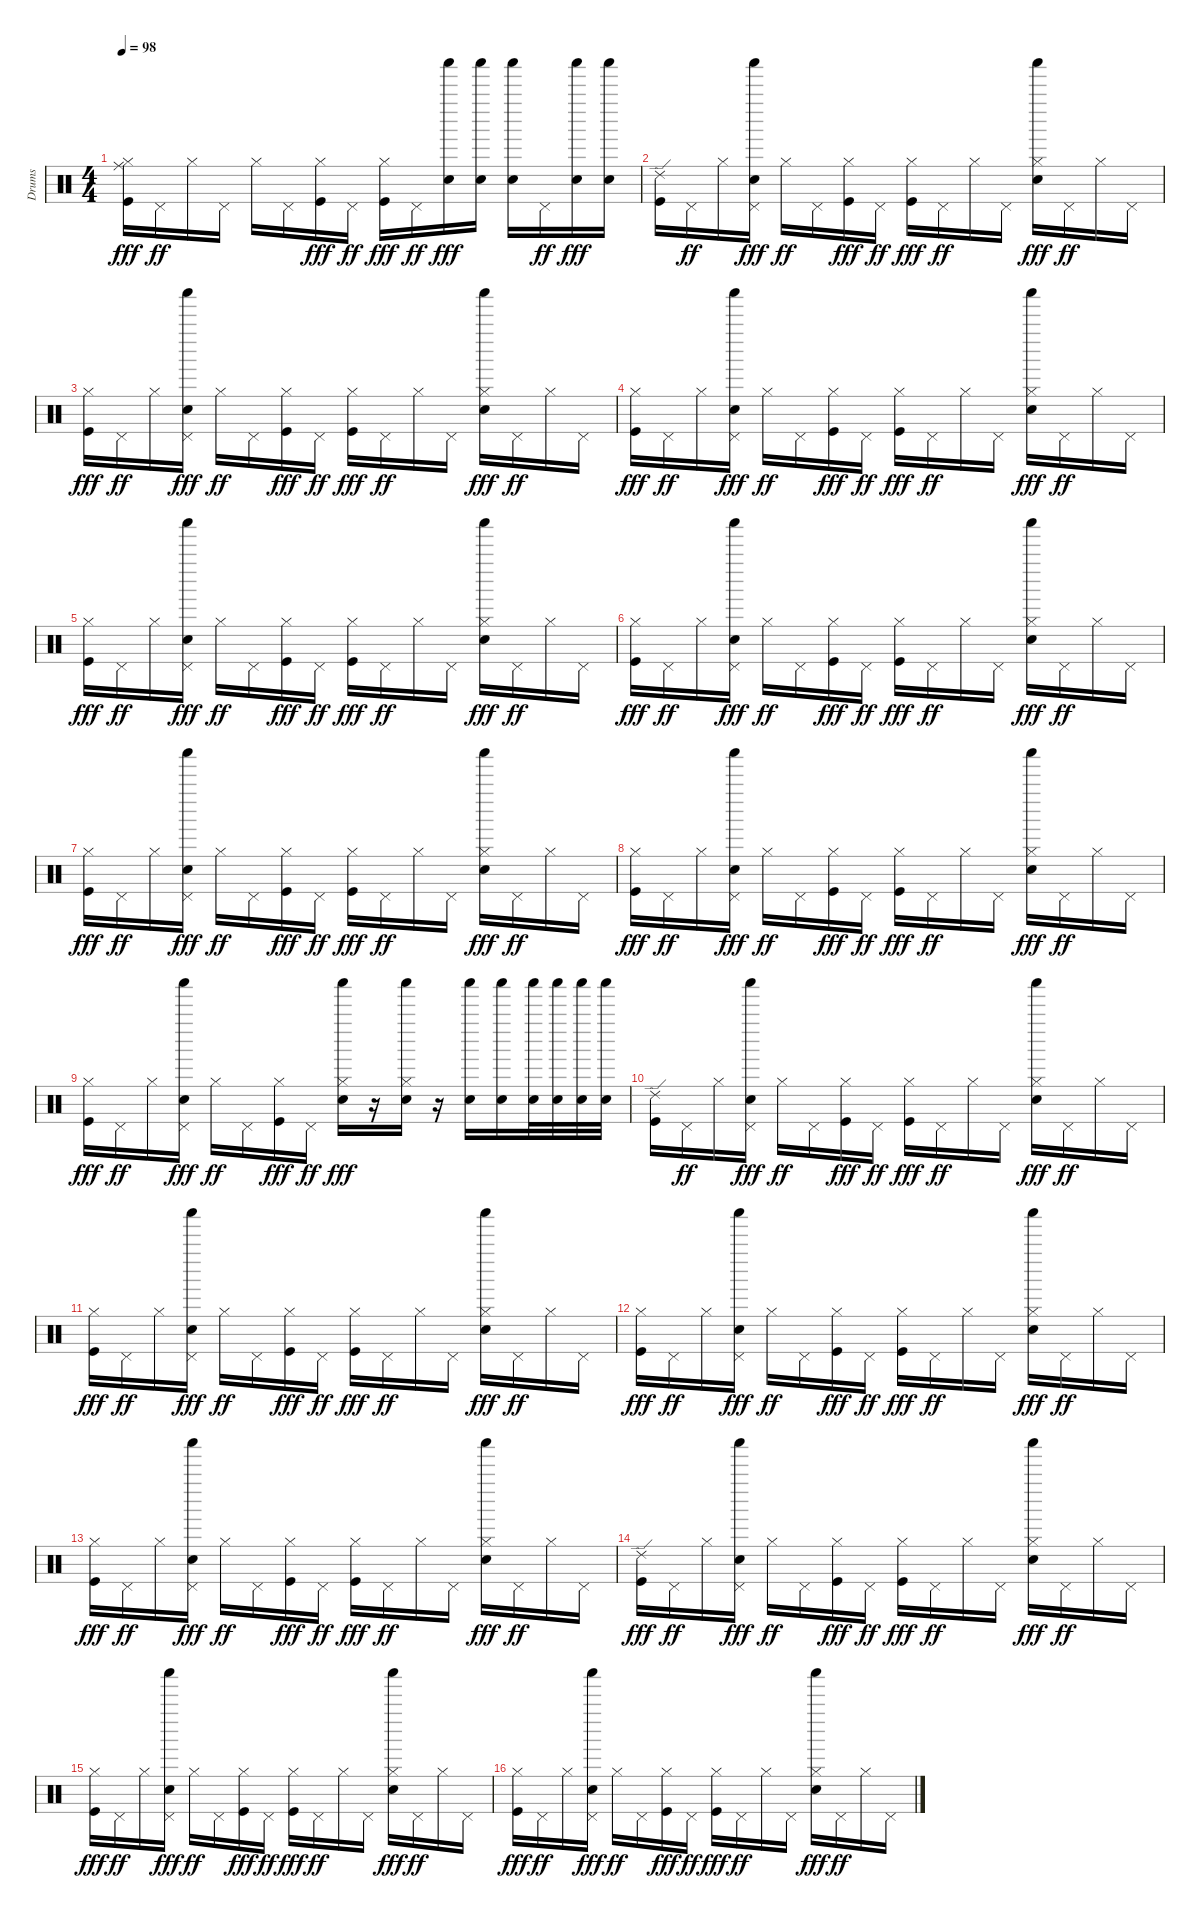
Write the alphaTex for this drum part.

\track ("Drums" "Drums") {instrument percussion}
\staff {score}
\articulation defaults
\ts (4 4)
\tempo 98
\clef neutral
\ks c
("Hi-Hat (closed)" "Kick (hit)" "Ride (middle)").16{dy fff} "Pedal Hi-Hat (hit)".16{dy ff} "Hi-Hat (closed)".16 "Pedal Hi-Hat (hit)".16 "Hi-Hat (closed)".16 "Pedal Hi-Hat (hit)".16 ("Hi-Hat (closed)" "Kick (hit)").16{dy fff} "Pedal Hi-Hat (hit)".16{dy ff} ("Hi-Hat (closed)" "Kick (hit)").16{dy fff} "Pedal Hi-Hat (hit)".16{dy ff} ("Shaker (hit)" "Electric Snare (hit)").16{dy fff} ("Shaker (hit)" "Electric Snare (hit)").16 ("Shaker (hit)" "Electric Snare (hit)").16 "Pedal Hi-Hat (hit)".16{dy ff} ("Shaker (hit)" "Electric Snare (hit)").16{dy fff} ("Shaker (hit)" "Electric Snare (hit)").16 |
("Kick (hit)" "Ride (edge) 2").16 "Pedal Hi-Hat (hit)".16{dy ff} "Hi-Hat (closed)".16 ("Pedal Hi-Hat (hit)" "Shaker (hit)" "Electric Snare (hit)").16{dy fff} "Hi-Hat (closed)".16{dy ff} "Pedal Hi-Hat (hit)".16 ("Hi-Hat (closed)" "Kick (hit)").16{dy fff} "Pedal Hi-Hat (hit)".16{dy ff} ("Hi-Hat (closed)" "Kick (hit)").16{dy fff} "Pedal Hi-Hat (hit)".16{dy ff} "Hi-Hat (closed)".16 "Pedal Hi-Hat (hit)".16 ("Hi-Hat (closed)" "Shaker (hit)" "Electric Snare (hit)").16{dy fff} "Pedal Hi-Hat (hit)".16{dy ff} "Hi-Hat (closed)".16 "Pedal Hi-Hat (hit)".16 |
("Hi-Hat (closed)" "Kick (hit)").16{dy fff} "Pedal Hi-Hat (hit)".16{dy ff} "Hi-Hat (closed)".16 ("Pedal Hi-Hat (hit)" "Shaker (hit)" "Electric Snare (hit)").16{dy fff} "Hi-Hat (closed)".16{dy ff} "Pedal Hi-Hat (hit)".16 ("Hi-Hat (closed)" "Kick (hit)").16{dy fff} "Pedal Hi-Hat (hit)".16{dy ff} ("Hi-Hat (closed)" "Kick (hit)").16{dy fff} "Pedal Hi-Hat (hit)".16{dy ff} "Hi-Hat (closed)".16 "Pedal Hi-Hat (hit)".16 ("Hi-Hat (closed)" "Shaker (hit)" "Electric Snare (hit)").16{dy fff} "Pedal Hi-Hat (hit)".16{dy ff} "Hi-Hat (closed)".16 "Pedal Hi-Hat (hit)".16 |
("Hi-Hat (closed)" "Kick (hit)").16{dy fff} "Pedal Hi-Hat (hit)".16{dy ff} "Hi-Hat (closed)".16 ("Pedal Hi-Hat (hit)" "Shaker (hit)" "Electric Snare (hit)").16{dy fff} "Hi-Hat (closed)".16{dy ff} "Pedal Hi-Hat (hit)".16 ("Hi-Hat (closed)" "Kick (hit)").16{dy fff} "Pedal Hi-Hat (hit)".16{dy ff} ("Hi-Hat (closed)" "Kick (hit)").16{dy fff} "Pedal Hi-Hat (hit)".16{dy ff} "Hi-Hat (closed)".16 "Pedal Hi-Hat (hit)".16 ("Hi-Hat (closed)" "Shaker (hit)" "Electric Snare (hit)").16{dy fff} "Pedal Hi-Hat (hit)".16{dy ff} "Hi-Hat (closed)".16 "Pedal Hi-Hat (hit)".16 |
("Hi-Hat (closed)" "Kick (hit)").16{dy fff} "Pedal Hi-Hat (hit)".16{dy ff} "Hi-Hat (closed)".16 ("Pedal Hi-Hat (hit)" "Shaker (hit)" "Electric Snare (hit)").16{dy fff} "Hi-Hat (closed)".16{dy ff} "Pedal Hi-Hat (hit)".16 ("Hi-Hat (closed)" "Kick (hit)").16{dy fff} "Pedal Hi-Hat (hit)".16{dy ff} ("Hi-Hat (closed)" "Kick (hit)").16{dy fff} "Pedal Hi-Hat (hit)".16{dy ff} "Hi-Hat (closed)".16 "Pedal Hi-Hat (hit)".16 ("Hi-Hat (closed)" "Shaker (hit)" "Electric Snare (hit)").16{dy fff} "Pedal Hi-Hat (hit)".16{dy ff} "Hi-Hat (closed)".16 "Pedal Hi-Hat (hit)".16 |
("Hi-Hat (closed)" "Kick (hit)").16{dy fff} "Pedal Hi-Hat (hit)".16{dy ff} "Hi-Hat (closed)".16 ("Pedal Hi-Hat (hit)" "Shaker (hit)" "Electric Snare (hit)").16{dy fff} "Hi-Hat (closed)".16{dy ff} "Pedal Hi-Hat (hit)".16 ("Hi-Hat (closed)" "Kick (hit)").16{dy fff} "Pedal Hi-Hat (hit)".16{dy ff} ("Hi-Hat (closed)" "Kick (hit)").16{dy fff} "Pedal Hi-Hat (hit)".16{dy ff} "Hi-Hat (closed)".16 "Pedal Hi-Hat (hit)".16 ("Hi-Hat (closed)" "Shaker (hit)" "Electric Snare (hit)").16{dy fff} "Pedal Hi-Hat (hit)".16{dy ff} "Hi-Hat (closed)".16 "Pedal Hi-Hat (hit)".16 |
("Hi-Hat (closed)" "Kick (hit)").16{dy fff} "Pedal Hi-Hat (hit)".16{dy ff} "Hi-Hat (closed)".16 ("Pedal Hi-Hat (hit)" "Shaker (hit)" "Electric Snare (hit)").16{dy fff} "Hi-Hat (closed)".16{dy ff} "Pedal Hi-Hat (hit)".16 ("Hi-Hat (closed)" "Kick (hit)").16{dy fff} "Pedal Hi-Hat (hit)".16{dy ff} ("Hi-Hat (closed)" "Kick (hit)").16{dy fff} "Pedal Hi-Hat (hit)".16{dy ff} "Hi-Hat (closed)".16 "Pedal Hi-Hat (hit)".16 ("Hi-Hat (closed)" "Shaker (hit)" "Electric Snare (hit)").16{dy fff} "Pedal Hi-Hat (hit)".16{dy ff} "Hi-Hat (closed)".16 "Pedal Hi-Hat (hit)".16 |
("Hi-Hat (closed)" "Kick (hit)").16{dy fff} "Pedal Hi-Hat (hit)".16{dy ff} "Hi-Hat (closed)".16 ("Pedal Hi-Hat (hit)" "Shaker (hit)" "Electric Snare (hit)").16{dy fff} "Hi-Hat (closed)".16{dy ff} "Pedal Hi-Hat (hit)".16 ("Hi-Hat (closed)" "Kick (hit)").16{dy fff} "Pedal Hi-Hat (hit)".16{dy ff} ("Hi-Hat (closed)" "Kick (hit)").16{dy fff} "Pedal Hi-Hat (hit)".16{dy ff} "Hi-Hat (closed)".16 "Pedal Hi-Hat (hit)".16 ("Hi-Hat (closed)" "Shaker (hit)" "Electric Snare (hit)").16{dy fff} "Pedal Hi-Hat (hit)".16{dy ff} "Hi-Hat (closed)".16 "Pedal Hi-Hat (hit)".16 |
("Hi-Hat (closed)" "Kick (hit)").16{dy fff} "Pedal Hi-Hat (hit)".16{dy ff} "Hi-Hat (closed)".16 ("Pedal Hi-Hat (hit)" "Shaker (hit)" "Electric Snare (hit)").16{dy fff} "Hi-Hat (closed)".16{dy ff} "Pedal Hi-Hat (hit)".16 ("Hi-Hat (closed)" "Kick (hit)").16{dy fff} "Pedal Hi-Hat (hit)".16{dy ff} ("Hi-Hat (closed)" "Shaker (hit)" "Electric Snare (hit)").16{dy fff} r.16 ("Hi-Hat (closed)" "Shaker (hit)" "Electric Snare (hit)").16 r.16 ("Shaker (hit)" "Electric Snare (hit)").16 ("Shaker (hit)" "Electric Snare (hit)").16 ("Shaker (hit)" "Electric Snare (hit)").32 ("Shaker (hit)" "Electric Snare (hit)").32 ("Shaker (hit)" "Electric Snare (hit)").32 ("Shaker (hit)" "Electric Snare (hit)").32 |
("Kick (hit)" "Ride (edge) 2").16 "Pedal Hi-Hat (hit)".16{dy ff} "Hi-Hat (closed)".16 ("Pedal Hi-Hat (hit)" "Shaker (hit)" "Electric Snare (hit)").16{dy fff} "Hi-Hat (closed)".16{dy ff} "Pedal Hi-Hat (hit)".16 ("Hi-Hat (closed)" "Kick (hit)").16{dy fff} "Pedal Hi-Hat (hit)".16{dy ff} ("Hi-Hat (closed)" "Kick (hit)").16{dy fff} "Pedal Hi-Hat (hit)".16{dy ff} "Hi-Hat (closed)".16 "Pedal Hi-Hat (hit)".16 ("Hi-Hat (closed)" "Shaker (hit)" "Electric Snare (hit)").16{dy fff} "Pedal Hi-Hat (hit)".16{dy ff} "Hi-Hat (closed)".16 "Pedal Hi-Hat (hit)".16 |
("Hi-Hat (closed)" "Kick (hit)").16{dy fff} "Pedal Hi-Hat (hit)".16{dy ff} "Hi-Hat (closed)".16 ("Pedal Hi-Hat (hit)" "Shaker (hit)" "Electric Snare (hit)").16{dy fff} "Hi-Hat (closed)".16{dy ff} "Pedal Hi-Hat (hit)".16 ("Hi-Hat (closed)" "Kick (hit)").16{dy fff} "Pedal Hi-Hat (hit)".16{dy ff} ("Hi-Hat (closed)" "Kick (hit)").16{dy fff} "Pedal Hi-Hat (hit)".16{dy ff} "Hi-Hat (closed)".16 "Pedal Hi-Hat (hit)".16 ("Hi-Hat (closed)" "Shaker (hit)" "Electric Snare (hit)").16{dy fff} "Pedal Hi-Hat (hit)".16{dy ff} "Hi-Hat (closed)".16 "Pedal Hi-Hat (hit)".16 |
("Hi-Hat (closed)" "Kick (hit)").16{dy fff} "Pedal Hi-Hat (hit)".16{dy ff} "Hi-Hat (closed)".16 ("Pedal Hi-Hat (hit)" "Shaker (hit)" "Electric Snare (hit)").16{dy fff} "Hi-Hat (closed)".16{dy ff} "Pedal Hi-Hat (hit)".16 ("Hi-Hat (closed)" "Kick (hit)").16{dy fff} "Pedal Hi-Hat (hit)".16{dy ff} ("Hi-Hat (closed)" "Kick (hit)").16{dy fff} "Pedal Hi-Hat (hit)".16{dy ff} "Hi-Hat (closed)".16 "Pedal Hi-Hat (hit)".16 ("Hi-Hat (closed)" "Shaker (hit)" "Electric Snare (hit)").16{dy fff} "Pedal Hi-Hat (hit)".16{dy ff} "Hi-Hat (closed)".16 "Pedal Hi-Hat (hit)".16 |
("Hi-Hat (closed)" "Kick (hit)").16{dy fff} "Pedal Hi-Hat (hit)".16{dy ff} "Hi-Hat (closed)".16 ("Pedal Hi-Hat (hit)" "Shaker (hit)" "Electric Snare (hit)").16{dy fff} "Hi-Hat (closed)".16{dy ff} "Pedal Hi-Hat (hit)".16 ("Hi-Hat (closed)" "Kick (hit)").16{dy fff} "Pedal Hi-Hat (hit)".16{dy ff} ("Hi-Hat (closed)" "Kick (hit)").16{dy fff} "Pedal Hi-Hat (hit)".16{dy ff} "Hi-Hat (closed)".16 "Pedal Hi-Hat (hit)".16 ("Hi-Hat (closed)" "Shaker (hit)" "Electric Snare (hit)").16{dy fff} "Pedal Hi-Hat (hit)".16{dy ff} "Hi-Hat (closed)".16 "Pedal Hi-Hat (hit)".16 |
("Kick (hit)" "Ride (edge) 2").16{dy fff} "Pedal Hi-Hat (hit)".16{dy ff} "Hi-Hat (closed)".16 ("Pedal Hi-Hat (hit)" "Shaker (hit)" "Electric Snare (hit)").16{dy fff} "Hi-Hat (closed)".16{dy ff} "Pedal Hi-Hat (hit)".16 ("Hi-Hat (closed)" "Kick (hit)").16{dy fff} "Pedal Hi-Hat (hit)".16{dy ff} ("Hi-Hat (closed)" "Kick (hit)").16{dy fff} "Pedal Hi-Hat (hit)".16{dy ff} "Hi-Hat (closed)".16 "Pedal Hi-Hat (hit)".16 ("Hi-Hat (closed)" "Shaker (hit)" "Electric Snare (hit)").16{dy fff} "Pedal Hi-Hat (hit)".16{dy ff} "Hi-Hat (closed)".16 "Pedal Hi-Hat (hit)".16 |
("Hi-Hat (closed)" "Kick (hit)").16{dy fff} "Pedal Hi-Hat (hit)".16{dy ff} "Hi-Hat (closed)".16 ("Pedal Hi-Hat (hit)" "Shaker (hit)" "Electric Snare (hit)").16{dy fff} "Hi-Hat (closed)".16{dy ff} "Pedal Hi-Hat (hit)".16 ("Hi-Hat (closed)" "Kick (hit)").16{dy fff} "Pedal Hi-Hat (hit)".16{dy ff} ("Hi-Hat (closed)" "Kick (hit)").16{dy fff} "Pedal Hi-Hat (hit)".16{dy ff} "Hi-Hat (closed)".16 "Pedal Hi-Hat (hit)".16 ("Hi-Hat (closed)" "Shaker (hit)" "Electric Snare (hit)").16{dy fff} "Pedal Hi-Hat (hit)".16{dy ff} "Hi-Hat (closed)".16 "Pedal Hi-Hat (hit)".16 |
("Hi-Hat (closed)" "Kick (hit)").16{dy fff} "Pedal Hi-Hat (hit)".16{dy ff} "Hi-Hat (closed)".16 ("Pedal Hi-Hat (hit)" "Shaker (hit)" "Electric Snare (hit)").16{dy fff} "Hi-Hat (closed)".16{dy ff} "Pedal Hi-Hat (hit)".16 ("Hi-Hat (closed)" "Kick (hit)").16{dy fff} "Pedal Hi-Hat (hit)".16{dy ff} ("Hi-Hat (closed)" "Kick (hit)").16{dy fff} "Pedal Hi-Hat (hit)".16{dy ff} "Hi-Hat (closed)".16 "Pedal Hi-Hat (hit)".16 ("Hi-Hat (closed)" "Shaker (hit)" "Electric Snare (hit)").16{dy fff} "Pedal Hi-Hat (hit)".16{dy ff} "Hi-Hat (closed)".16 "Pedal Hi-Hat (hit)".16
